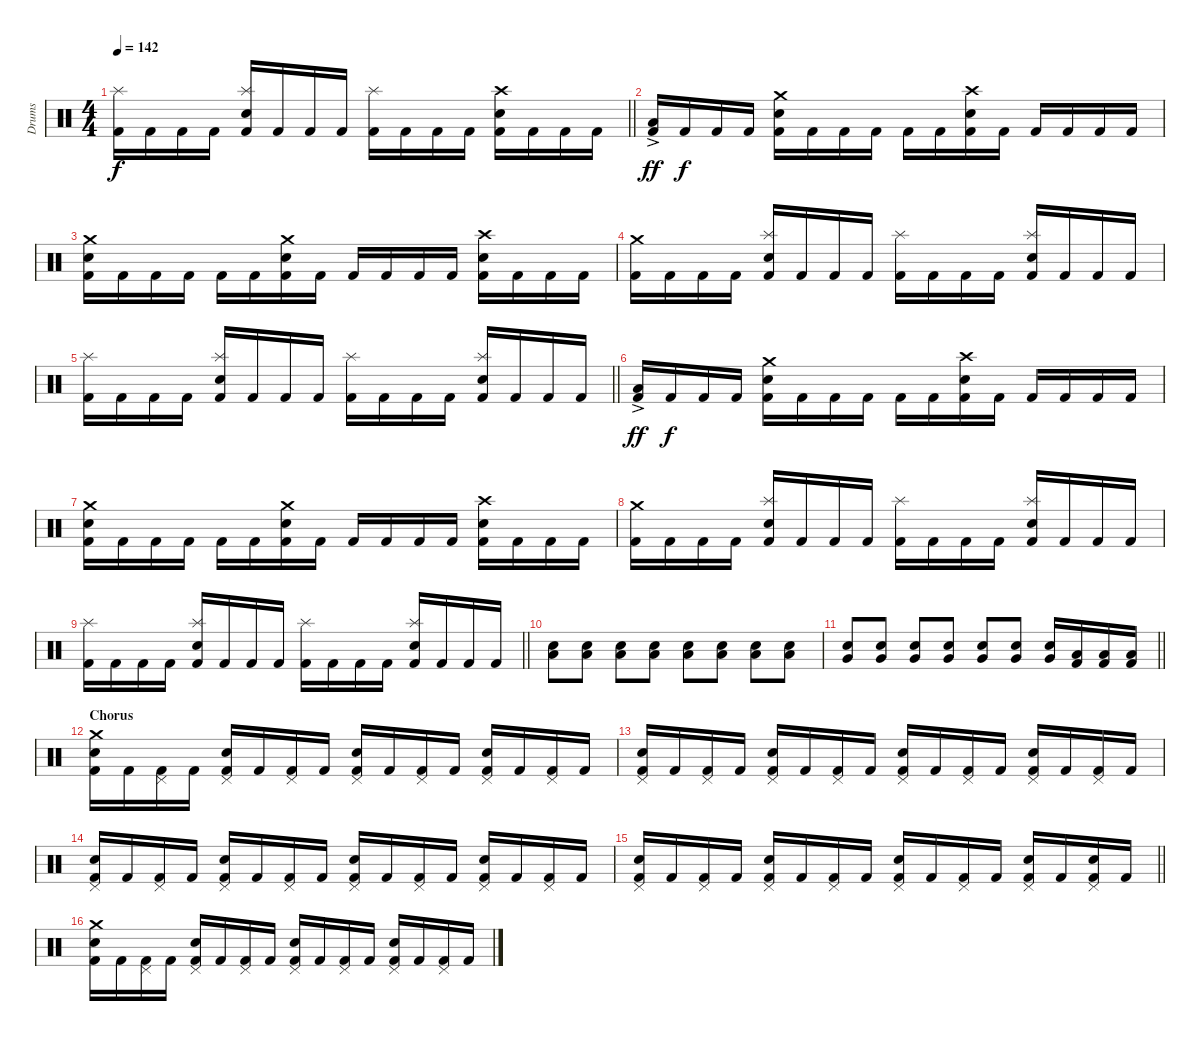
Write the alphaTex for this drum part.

\track ("Drums" "Drums") {instrument percussion}
\staff {score}
\articulation defaults
\ts (4 4)
\tempo 142
\clef neutral
\barLineRight lightlight
\ks c
("Kick (hit) 2" "Splash (hit)").16{dy f} "Kick (hit) 2".16 "Kick (hit) 2".16 "Kick (hit) 2".16 ("Kick (hit) 2" "Snare (hit) 2" "Splash (hit)").16 "Kick (hit) 2".16 "Kick (hit) 2".16 "Kick (hit) 2".16 ("Kick (hit) 2" "Splash (hit)").16 "Kick (hit) 2".16 "Kick (hit) 2".16 "Kick (hit) 2".16 ("Kick (hit) 2" "Snare (hit) 2" "Crash high (hit)").16 "Kick (hit) 2".16 "Kick (hit) 2".16 "Kick (hit) 2".16 |
\section ("" "")
("Kick (hit) 2" "Low Floor Tom (hit)"{ac}).16{dy ff} "Kick (hit) 2".16{dy f} "Kick (hit) 2".16 "Kick (hit) 2".16 ("Kick (hit) 2" "Snare (hit) 2" "Crash medium (hit)").16 "Kick (hit) 2".16 "Kick (hit) 2".16 "Kick (hit) 2".16 "Kick (hit) 2".16 "Kick (hit) 2".16 ("Kick (hit) 2" "Snare (hit) 2" "Crash high (hit)").16 "Kick (hit) 2".16 "Kick (hit) 2".16 "Kick (hit) 2".16 "Kick (hit) 2".16 "Kick (hit) 2".16 |
("Kick (hit) 2" "Snare (hit) 2" "Crash medium (hit)").16 "Kick (hit) 2".16 "Kick (hit) 2".16 "Kick (hit) 2".16 "Kick (hit) 2".16 "Kick (hit) 2".16 ("Kick (hit) 2" "Snare (hit) 2" "Crash medium (hit)").16 "Kick (hit) 2".16 "Kick (hit) 2".16 "Kick (hit) 2".16 "Kick (hit) 2".16 "Kick (hit) 2".16 ("Kick (hit) 2" "Snare (hit) 2" "Crash high (hit)").16 "Kick (hit) 2".16 "Kick (hit) 2".16 "Kick (hit) 2".16 |
("Kick (hit) 2" "Crash medium (hit)").16 "Kick (hit) 2".16 "Kick (hit) 2".16 "Kick (hit) 2".16 ("Kick (hit) 2" "Snare (hit) 2" "Splash (hit)").16 "Kick (hit) 2".16 "Kick (hit) 2".16 "Kick (hit) 2".16 ("Kick (hit) 2" "Splash (hit)").16 "Kick (hit) 2".16 "Kick (hit) 2".16 "Kick (hit) 2".16 ("Kick (hit) 2" "Snare (hit) 2" "Splash (hit)").16 "Kick (hit) 2".16 "Kick (hit) 2".16 "Kick (hit) 2".16 |
\barLineRight lightlight
("Kick (hit) 2" "Splash (hit)").16 "Kick (hit) 2".16 "Kick (hit) 2".16 "Kick (hit) 2".16 ("Kick (hit) 2" "Snare (hit) 2" "Splash (hit)").16 "Kick (hit) 2".16 "Kick (hit) 2".16 "Kick (hit) 2".16 ("Kick (hit) 2" "Splash (hit)").16 "Kick (hit) 2".16 "Kick (hit) 2".16 "Kick (hit) 2".16 ("Kick (hit) 2" "Snare (hit) 2" "Splash (hit)").16 "Kick (hit) 2".16 "Kick (hit) 2".16 "Kick (hit) 2".16 |
\section ("" "")
("Kick (hit) 2" "Low Floor Tom (hit)"{ac}).16{dy ff} "Kick (hit) 2".16{dy f} "Kick (hit) 2".16 "Kick (hit) 2".16 ("Kick (hit) 2" "Snare (hit) 2" "Crash medium (hit)").16 "Kick (hit) 2".16 "Kick (hit) 2".16 "Kick (hit) 2".16 "Kick (hit) 2".16 "Kick (hit) 2".16 ("Kick (hit) 2" "Snare (hit) 2" "Crash high (hit)").16 "Kick (hit) 2".16 "Kick (hit) 2".16 "Kick (hit) 2".16 "Kick (hit) 2".16 "Kick (hit) 2".16 |
("Kick (hit) 2" "Snare (hit) 2" "Crash medium (hit)").16 "Kick (hit) 2".16 "Kick (hit) 2".16 "Kick (hit) 2".16 "Kick (hit) 2".16 "Kick (hit) 2".16 ("Kick (hit) 2" "Snare (hit) 2" "Crash medium (hit)").16 "Kick (hit) 2".16 "Kick (hit) 2".16 "Kick (hit) 2".16 "Kick (hit) 2".16 "Kick (hit) 2".16 ("Kick (hit) 2" "Snare (hit) 2" "Crash high (hit)").16 "Kick (hit) 2".16 "Kick (hit) 2".16 "Kick (hit) 2".16 |
("Kick (hit) 2" "Crash medium (hit)").16 "Kick (hit) 2".16 "Kick (hit) 2".16 "Kick (hit) 2".16 ("Kick (hit) 2" "Snare (hit) 2" "Splash (hit)").16 "Kick (hit) 2".16 "Kick (hit) 2".16 "Kick (hit) 2".16 ("Kick (hit) 2" "Splash (hit)").16 "Kick (hit) 2".16 "Kick (hit) 2".16 "Kick (hit) 2".16 ("Kick (hit) 2" "Snare (hit) 2" "Splash (hit)").16 "Kick (hit) 2".16 "Kick (hit) 2".16 "Kick (hit) 2".16 |
\barLineRight lightlight
("Kick (hit) 2" "Splash (hit)").16 "Kick (hit) 2".16 "Kick (hit) 2".16 "Kick (hit) 2".16 ("Kick (hit) 2" "Snare (hit) 2" "Splash (hit)").16 "Kick (hit) 2".16 "Kick (hit) 2".16 "Kick (hit) 2".16 ("Kick (hit) 2" "Splash (hit)").16 "Kick (hit) 2".16 "Kick (hit) 2".16 "Kick (hit) 2".16 ("Kick (hit) 2" "Snare (hit) 2" "Splash (hit)").16 "Kick (hit) 2".16 "Kick (hit) 2".16 "Kick (hit) 2".16 |
\section ("" "")
("Snare (hit) 2" "Low Tom (hit)").8{volume 10} ("Snare (hit) 2" "Low Tom (hit)").8{volume 15} ("Snare (hit) 2" "Low Tom (hit)").8 ("Snare (hit) 2" "Low Tom (hit)").8 ("Snare (hit) 2" "Low Tom (hit)").8 ("Snare (hit) 2" "Low Tom (hit)").8 ("Snare (hit) 2" "Low Tom (hit)").8 ("Snare (hit) 2" "Low Tom (hit)").8 |
\barLineRight lightlight
("Snare (hit) 2" "Very Low Tom (hit)").8 ("Snare (hit) 2" "Very Low Tom (hit)").8 ("Snare (hit) 2" "Very Low Tom (hit)").8 ("Snare (hit) 2" "Very Low Tom (hit)").8 ("Snare (hit) 2" "Very Low Tom (hit)").8 ("Snare (hit) 2" "Very Low Tom (hit)").8 ("Snare (hit) 2" "Very Low Tom (hit)").16 ("Kick (hit) 2" "Low Floor Tom (hit)").16 ("Kick (hit) 2" "Low Floor Tom (hit)").16 ("Kick (hit) 2" "Low Floor Tom (hit)").16 |
\section ("" "Chorus")
("Kick (hit) 2" "Snare (hit) 2" "Crash medium (hit)").16{volume 15} "Kick (hit) 2".16 ("Kick (hit) 2" "Pedal Hi-Hat (hit)").16 "Kick (hit) 2".16 ("Kick (hit) 2" "Snare (hit) 2" "Pedal Hi-Hat (hit)").16 "Kick (hit) 2".16 ("Kick (hit) 2" "Pedal Hi-Hat (hit)").16 "Kick (hit) 2".16 ("Kick (hit) 2" "Snare (hit) 2" "Pedal Hi-Hat (hit)").16 "Kick (hit) 2".16 ("Kick (hit) 2" "Pedal Hi-Hat (hit)").16 "Kick (hit) 2".16 ("Kick (hit) 2" "Snare (hit) 2" "Pedal Hi-Hat (hit)").16 "Kick (hit) 2".16 ("Kick (hit) 2" "Pedal Hi-Hat (hit)").16 "Kick (hit) 2".16 |
("Kick (hit) 2" "Snare (hit) 2" "Pedal Hi-Hat (hit)").16 "Kick (hit) 2".16 ("Kick (hit) 2" "Pedal Hi-Hat (hit)").16 "Kick (hit) 2".16 ("Kick (hit) 2" "Snare (hit) 2" "Pedal Hi-Hat (hit)").16 "Kick (hit) 2".16 ("Kick (hit) 2" "Pedal Hi-Hat (hit)").16 "Kick (hit) 2".16 ("Kick (hit) 2" "Snare (hit) 2" "Pedal Hi-Hat (hit)").16 "Kick (hit) 2".16 ("Kick (hit) 2" "Pedal Hi-Hat (hit)").16 "Kick (hit) 2".16 ("Kick (hit) 2" "Snare (hit) 2" "Pedal Hi-Hat (hit)").16 "Kick (hit) 2".16 ("Kick (hit) 2" "Pedal Hi-Hat (hit)").16 "Kick (hit) 2".16 |
("Kick (hit) 2" "Snare (hit) 2" "Pedal Hi-Hat (hit)").16 "Kick (hit) 2".16 ("Kick (hit) 2" "Pedal Hi-Hat (hit)").16 "Kick (hit) 2".16 ("Kick (hit) 2" "Snare (hit) 2" "Pedal Hi-Hat (hit)").16 "Kick (hit) 2".16 ("Kick (hit) 2" "Pedal Hi-Hat (hit)").16 "Kick (hit) 2".16 ("Kick (hit) 2" "Snare (hit) 2" "Pedal Hi-Hat (hit)").16 "Kick (hit) 2".16 ("Kick (hit) 2" "Pedal Hi-Hat (hit)").16 "Kick (hit) 2".16 ("Kick (hit) 2" "Snare (hit) 2" "Pedal Hi-Hat (hit)").16 "Kick (hit) 2".16 ("Kick (hit) 2" "Pedal Hi-Hat (hit)").16 "Kick (hit) 2".16 |
\barLineRight lightlight
("Kick (hit) 2" "Snare (hit) 2" "Pedal Hi-Hat (hit)").16 "Kick (hit) 2".16 ("Kick (hit) 2" "Pedal Hi-Hat (hit)").16 "Kick (hit) 2".16 ("Kick (hit) 2" "Snare (hit) 2" "Pedal Hi-Hat (hit)").16 "Kick (hit) 2".16 ("Kick (hit) 2" "Pedal Hi-Hat (hit)").16 "Kick (hit) 2".16 ("Kick (hit) 2" "Snare (hit) 2" "Pedal Hi-Hat (hit)").16 "Kick (hit) 2".16 ("Kick (hit) 2" "Pedal Hi-Hat (hit)").16 "Kick (hit) 2".16 ("Kick (hit) 2" "Snare (hit) 2" "Pedal Hi-Hat (hit)").16 "Kick (hit) 2".16 ("Kick (hit) 2" "Snare (hit) 2" "Pedal Hi-Hat (hit)").16 "Kick (hit) 2".16 |
\section ("" "")
("Kick (hit) 2" "Snare (hit) 2" "Crash medium (hit)").16 "Kick (hit) 2".16 ("Kick (hit) 2" "Pedal Hi-Hat (hit)").16 "Kick (hit) 2".16 ("Kick (hit) 2" "Snare (hit) 2" "Pedal Hi-Hat (hit)").16 "Kick (hit) 2".16 ("Kick (hit) 2" "Pedal Hi-Hat (hit)").16 "Kick (hit) 2".16 ("Kick (hit) 2" "Snare (hit) 2" "Pedal Hi-Hat (hit)").16 "Kick (hit) 2".16 ("Kick (hit) 2" "Pedal Hi-Hat (hit)").16 "Kick (hit) 2".16 ("Kick (hit) 2" "Snare (hit) 2" "Pedal Hi-Hat (hit)").16 "Kick (hit) 2".16 ("Kick (hit) 2" "Pedal Hi-Hat (hit)").16 "Kick (hit) 2".16
